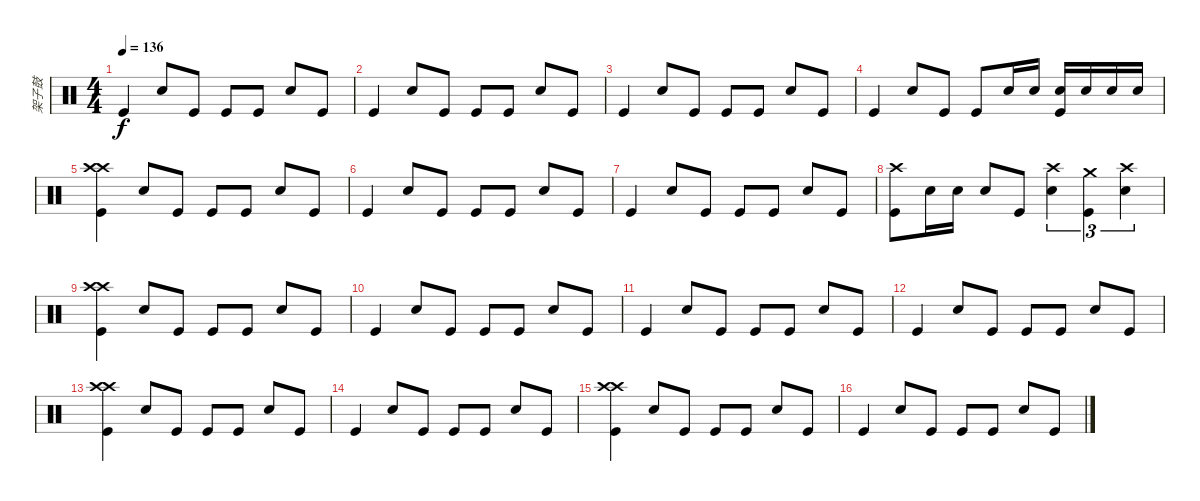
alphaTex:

\track ("架子鼓" "架子鼓") {instrument percussion}
\staff {score}
\articulation defaults
\ts (4 4)
\tempo 136
\clef neutral
\ks c "Kick (hit)".4{dy f} "Snare (hit) 2".8 "Kick (hit)".8 "Kick (hit)".8 "Kick (hit)".8 "Snare (hit) 2".8 "Kick (hit)".8
|
"Kick (hit)".4 "Snare (hit) 2".8 "Kick (hit)".8 "Kick (hit)".8 "Kick (hit)".8 "Snare (hit) 2".8 "Kick (hit)".8 |
"Kick (hit)".4 "Snare (hit) 2".8 "Kick (hit)".8 "Kick (hit)".8 "Kick (hit)".8 "Snare (hit) 2".8 "Kick (hit)".8 |
"Kick (hit)".4 "Snare (hit) 2".8 "Kick (hit)".8 "Kick (hit)".8 "Snare (hit) 2".16 "Snare (hit) 2".16 ("Snare (hit) 2" "Kick (hit)").16 "Snare (hit) 2".16 "Snare (hit) 2".16 "Snare (hit) 2".16 |
("Crash high (hit)" "Crash high (hit)" "Kick (hit)").4 "Snare (hit) 2".8 "Kick (hit)".8 "Kick (hit)".8 "Kick (hit)".8 "Snare (hit) 2".8 "Kick (hit)".8 |
"Kick (hit)".4 "Snare (hit) 2".8 "Kick (hit)".8 "Kick (hit)".8 "Kick (hit)".8 "Snare (hit) 2".8 "Kick (hit)".8 |
"Kick (hit)".4 "Snare (hit) 2".8 "Kick (hit)".8 "Kick (hit)".8 "Kick (hit)".8 "Snare (hit) 2".8 "Kick (hit)".8 |
("Crash high (hit)" "Kick (hit)").8 "Snare (hit) 2".16 "Snare (hit) 2".16 "Snare (hit) 2".8 "Kick (hit)".8 ("Crash high (hit)" "Snare (hit) 2").4{tu (3 2)} ("Crash medium (hit)" "Kick (hit)").4{tu (3 2)} ("Crash high (hit)" "Snare (hit) 2").4{tu (3 2)} |
("Crash high (hit)" "Crash high (hit)" "Kick (hit)").4 "Snare (hit) 2".8 "Kick (hit)".8 "Kick (hit)".8 "Kick (hit)".8 "Snare (hit) 2".8 "Kick (hit)".8 |
"Kick (hit)".4 "Snare (hit) 2".8 "Kick (hit)".8 "Kick (hit)".8 "Kick (hit)".8 "Snare (hit) 2".8 "Kick (hit)".8 |
"Kick (hit)".4 "Snare (hit) 2".8 "Kick (hit)".8 "Kick (hit)".8 "Kick (hit)".8 "Snare (hit) 2".8 "Kick (hit)".8 |
"Kick (hit)".4 "Snare (hit) 2".8 "Kick (hit)".8 "Kick (hit)".8 "Kick (hit)".8 "Snare (hit) 2".8 "Kick (hit)".8 |
("Crash high (hit)" "Crash high (hit)" "Kick (hit)").4 "Snare (hit) 2".8 "Kick (hit)".8 "Kick (hit)".8 "Kick (hit)".8 "Snare (hit) 2".8 "Kick (hit)".8 |
"Kick (hit)".4 "Snare (hit) 2".8 "Kick (hit)".8 "Kick (hit)".8 "Kick (hit)".8 "Snare (hit) 2".8 "Kick (hit)".8 |
("Crash high (hit)" "Crash high (hit)" "Kick (hit)").4 "Snare (hit) 2".8 "Kick (hit)".8 "Kick (hit)".8 "Kick (hit)".8 "Snare (hit) 2".8 "Kick (hit)".8 |
"Kick (hit)".4 "Snare (hit) 2".8 "Kick (hit)".8 "Kick (hit)".8 "Kick (hit)".8 "Snare (hit) 2".8 "Kick (hit)".8
